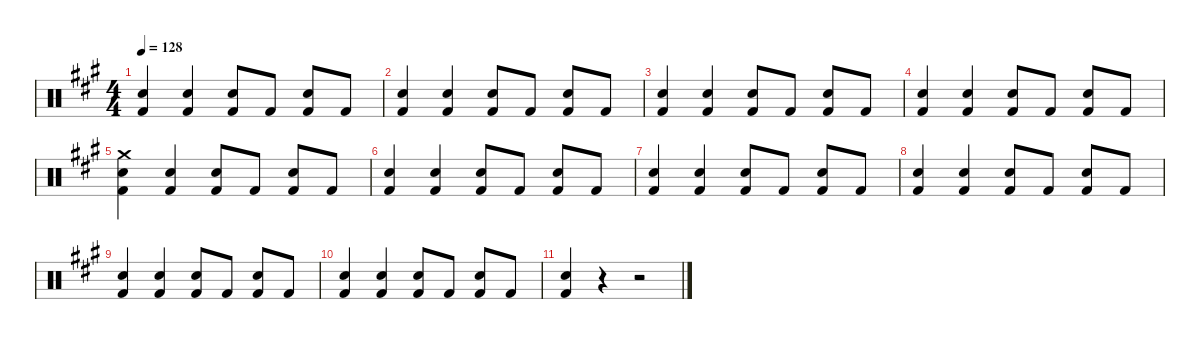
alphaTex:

\defaultSystemsLayout 4
\hideDynamics
\bracketExtendMode nobrackets
\singleTrackTrackNamePolicy hidden
\multiTrackTrackNamePolicy hidden
\firstSystemTrackNameMode fullname
\firstSystemTrackNameOrientation horizontal
\otherSystemsTrackNameOrientation horizontal
\track ("Drumkit" "Drums") {instrument percussion}
\staff {score}
\articulation defaults
\ts (4 4)
\tempo 128
\clef neutral
\ks a
("Snare (hit) 2"{acc forcenatural} "Kick (hit) 2"{acc forcenatural}).4{dy f beam Up} ("Snare (hit) 2"{acc forcenatural} "Kick (hit) 2"{acc forcenatural}).4{beam Up} ("Snare (hit) 2"{acc forcenatural} "Kick (hit) 2"{acc forcenatural}).8{beam Up} "Kick (hit) 2"{acc forcenatural}.8{beam Up} ("Snare (hit) 2"{acc forcenatural} "Kick (hit) 2"{acc forcenatural}).8{beam Up} "Kick (hit) 2"{acc forcenatural}.8{beam Up} |
("Snare (hit) 2"{acc forcenatural} "Kick (hit) 2"{acc forcenatural}).4{beam Up} ("Snare (hit) 2"{acc forcenatural} "Kick (hit) 2"{acc forcenatural}).4{beam Up} ("Snare (hit) 2"{acc forcenatural} "Kick (hit) 2"{acc forcenatural}).8{beam Up} "Kick (hit) 2"{acc forcenatural}.8{beam Up} ("Snare (hit) 2"{acc forcenatural} "Kick (hit) 2"{acc forcenatural}).8{beam Up} "Kick (hit) 2"{acc forcenatural}.8{beam Up} |
("Snare (hit) 2"{acc forcenatural} "Kick (hit) 2"{acc forcenatural}).4{beam Up} ("Snare (hit) 2"{acc forcenatural} "Kick (hit) 2"{acc forcenatural}).4{beam Up} ("Snare (hit) 2"{acc forcenatural} "Kick (hit) 2"{acc forcenatural}).8{beam Up} "Kick (hit) 2"{acc forcenatural}.8{beam Up} ("Snare (hit) 2"{acc forcenatural} "Kick (hit) 2"{acc forcenatural}).8{beam Up} "Kick (hit) 2"{acc forcenatural}.8{beam Up} |
("Snare (hit) 2"{acc forcenatural} "Kick (hit) 2"{acc forcenatural}).4{beam Up} ("Snare (hit) 2"{acc forcenatural} "Kick (hit) 2"{acc forcenatural}).4{beam Up} ("Snare (hit) 2"{acc forcenatural} "Kick (hit) 2"{acc forcenatural}).8{beam Up} "Kick (hit) 2"{acc forcenatural}.8{beam Up} ("Snare (hit) 2"{acc forcenatural} "Kick (hit) 2"{acc forcenatural}).8{beam Up} "Kick (hit) 2"{acc forcenatural}.8{beam Up} |
("Crash medium (hit)"{acc forcenatural} "Snare (hit) 2"{acc forcenatural} "Kick (hit) 2"{acc forcenatural}).4{beam Down} ("Snare (hit) 2"{acc forcenatural} "Kick (hit) 2"{acc forcenatural}).4{beam Up} ("Snare (hit) 2"{acc forcenatural} "Kick (hit) 2"{acc forcenatural}).8{beam Up} "Kick (hit) 2"{acc forcenatural}.8{beam Up} ("Snare (hit) 2"{acc forcenatural} "Kick (hit) 2"{acc forcenatural}).8{beam Up} "Kick (hit) 2"{acc forcenatural}.8{beam Up} |
("Snare (hit) 2"{acc forcenatural} "Kick (hit) 2"{acc forcenatural}).4{beam Up} ("Snare (hit) 2"{acc forcenatural} "Kick (hit) 2"{acc forcenatural}).4{beam Up} ("Snare (hit) 2"{acc forcenatural} "Kick (hit) 2"{acc forcenatural}).8{beam Up} "Kick (hit) 2"{acc forcenatural}.8{beam Up} ("Snare (hit) 2"{acc forcenatural} "Kick (hit) 2"{acc forcenatural}).8{beam Up} "Kick (hit) 2"{acc forcenatural}.8{beam Up} |
("Snare (hit) 2"{acc forcenatural} "Kick (hit) 2"{acc forcenatural}).4{beam Up} ("Snare (hit) 2"{acc forcenatural} "Kick (hit) 2"{acc forcenatural}).4{beam Up} ("Snare (hit) 2"{acc forcenatural} "Kick (hit) 2"{acc forcenatural}).8{beam Up} "Kick (hit) 2"{acc forcenatural}.8{beam Up} ("Snare (hit) 2"{acc forcenatural} "Kick (hit) 2"{acc forcenatural}).8{beam Up} "Kick (hit) 2"{acc forcenatural}.8{beam Up} |
("Snare (hit) 2"{acc forcenatural} "Kick (hit) 2"{acc forcenatural}).4{beam Up} ("Snare (hit) 2"{acc forcenatural} "Kick (hit) 2"{acc forcenatural}).4{beam Up} ("Snare (hit) 2"{acc forcenatural} "Kick (hit) 2"{acc forcenatural}).8{beam Up} "Kick (hit) 2"{acc forcenatural}.8{beam Up} ("Snare (hit) 2"{acc forcenatural} "Kick (hit) 2"{acc forcenatural}).8{beam Up} "Kick (hit) 2"{acc forcenatural}.8{beam Up} |
("Snare (hit) 2"{acc forcenatural} "Kick (hit) 2"{acc forcenatural}).4{beam Up} ("Snare (hit) 2"{acc forcenatural} "Kick (hit) 2"{acc forcenatural}).4{beam Up} ("Snare (hit) 2"{acc forcenatural} "Kick (hit) 2"{acc forcenatural}).8{beam Up} "Kick (hit) 2"{acc forcenatural}.8{beam Up} ("Snare (hit) 2"{acc forcenatural} "Kick (hit) 2"{acc forcenatural}).8{beam Up} "Kick (hit) 2"{acc forcenatural}.8{beam Up} |
("Snare (hit) 2"{acc forcenatural} "Kick (hit) 2"{acc forcenatural}).4{beam Up} ("Snare (hit) 2"{acc forcenatural} "Kick (hit) 2"{acc forcenatural}).4{beam Up} ("Snare (hit) 2"{acc forcenatural} "Kick (hit) 2"{acc forcenatural}).8{beam Up} "Kick (hit) 2"{acc forcenatural}.8{beam Up} ("Snare (hit) 2"{acc forcenatural} "Kick (hit) 2"{acc forcenatural}).8{beam Up} "Kick (hit) 2"{acc forcenatural}.8{beam Up} |
("Snare (hit) 2"{acc forcenatural} "Kick (hit) 2"{acc forcenatural}).4{beam Up} r.4{beam Up} r.2{beam Up}
